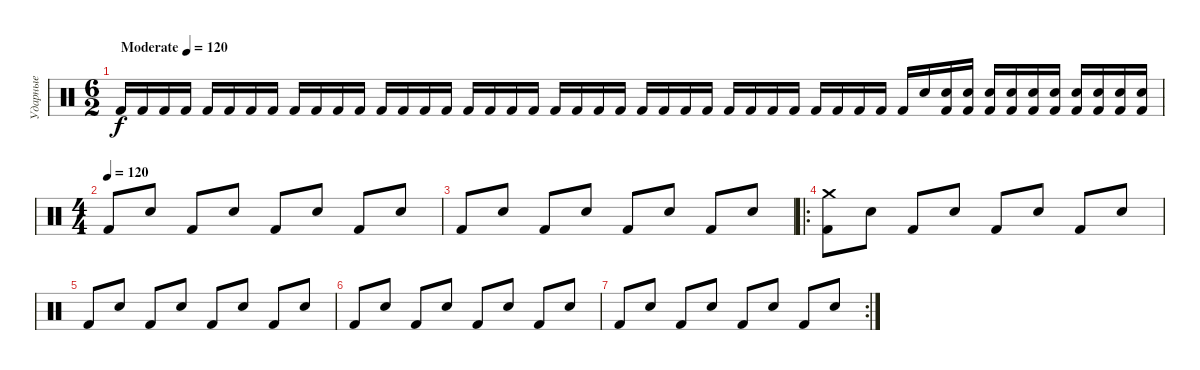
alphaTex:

\track ("Ударные" "Ударные") {instrument percussion}
\staff {score}
\articulation defaults
\ts (6 2)
\tempo (120 "Moderate")
\tempo 140
\tempo (120 "Moderate")
\clef neutral
\ks c "Kick (hit) 2".16{dy f} "Kick (hit) 2".16 "Kick (hit) 2".16 "Kick (hit) 2".16 "Kick (hit) 2".16 "Kick (hit) 2".16 "Kick (hit) 2".16 "Kick (hit) 2".16 "Kick (hit) 2".16 "Kick (hit) 2".16 "Kick (hit) 2".16 "Kick (hit) 2".16 "Kick (hit) 2".16 "Kick (hit) 2".16 "Kick (hit) 2".16 "Kick (hit) 2".16 "Kick (hit) 2".16 "Kick (hit) 2".16 "Kick (hit) 2".16 "Kick (hit) 2".16 "Kick (hit) 2".16 "Kick (hit) 2".16 "Kick (hit) 2".16 "Kick (hit) 2".16 "Kick (hit) 2".16 "Kick (hit) 2".16 "Kick (hit) 2".16 "Kick (hit) 2".16 "Kick (hit) 2".16 "Kick (hit) 2".16 "Kick (hit) 2".16 "Kick (hit) 2".16 "Kick (hit) 2".16 "Kick (hit) 2".16 "Kick (hit) 2".16 "Kick (hit) 2".16 "Kick (hit) 2".16 "Snare (hit)".16
("Snare (hit) 2" "Kick (hit) 2").16 ("Snare (hit) 2" "Kick (hit) 2").16 ("Snare (hit) 2" "Kick (hit) 2").16 ("Snare (hit) 2" "Kick (hit) 2").16 ("Snare (hit) 2" "Kick (hit) 2").16 ("Snare (hit) 2" "Kick (hit) 2").16 ("Snare (hit) 2" "Kick (hit) 2").16 ("Snare (hit) 2" "Kick (hit) 2").16 ("Snare (hit) 2" "Kick (hit) 2").16 ("Snare (hit) 2" "Kick (hit) 2").16 |
\ts (4 4)
\tempo (120)
"Kick (hit) 2".8 "Snare (hit) 2".8 "Kick (hit) 2".8 "Snare (hit) 2".8 "Kick (hit) 2".8 "Snare (hit) 2".8 "Kick (hit) 2".8 "Snare (hit) 2".8 |
"Kick (hit) 2".8 "Snare (hit) 2".8 "Kick (hit) 2".8 "Snare (hit) 2".8 "Kick (hit) 2".8 "Snare (hit) 2".8 "Kick (hit) 2".8 "Snare (hit) 2".8 |
\ro
("Crash medium (hit)" "Kick (hit) 2").8 "Snare (hit) 2".8 "Kick (hit) 2".8 "Snare (hit) 2".8 "Kick (hit) 2".8 "Snare (hit) 2".8 "Kick (hit) 2".8 "Snare (hit) 2".8 |
"Kick (hit) 2".8 "Snare (hit) 2".8 "Kick (hit) 2".8 "Snare (hit) 2".8 "Kick (hit) 2".8 "Snare (hit) 2".8 "Kick (hit) 2".8 "Snare (hit) 2".8 |
"Kick (hit) 2".8 "Snare (hit) 2".8 "Kick (hit) 2".8 "Snare (hit) 2".8 "Kick (hit) 2".8 "Snare (hit) 2".8 "Kick (hit) 2".8 "Snare (hit) 2".8 |
\rc 2 "Kick (hit) 2".8 "Snare (hit) 2".8 "Kick (hit) 2".8 "Snare (hit) 2".8 "Kick (hit) 2".8 "Snare (hit) 2".8 "Kick (hit) 2".8 "Snare (hit) 2".8
